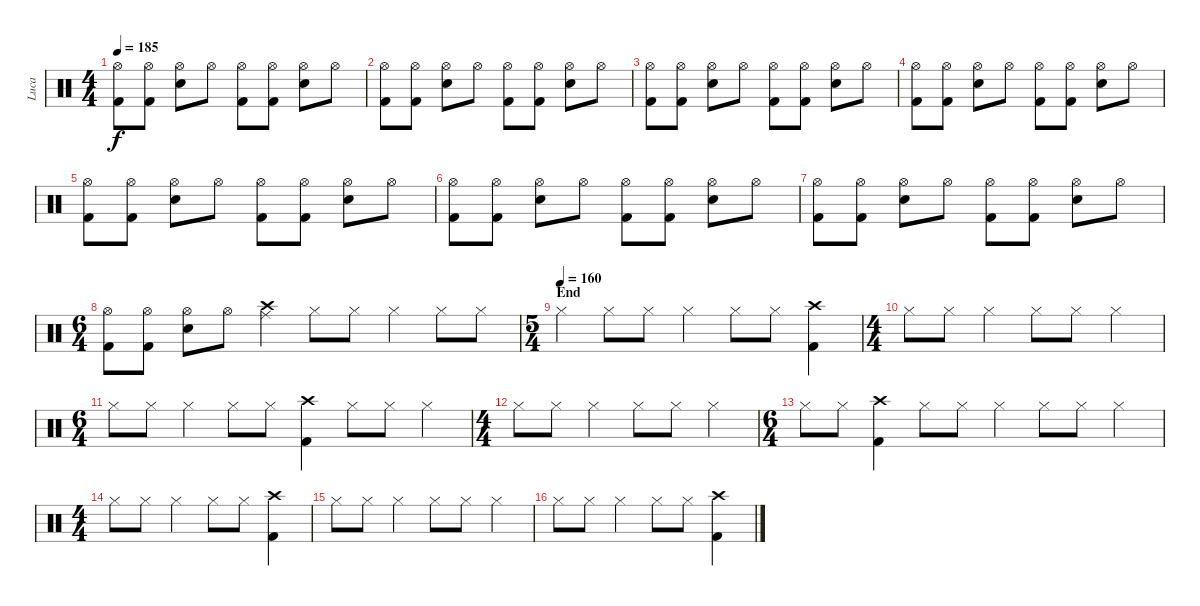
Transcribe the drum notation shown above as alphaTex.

\track ("Luca" "Luca") {instrument percussion}
\staff {score}
\articulation defaults
\ts (4 4)
\tempo 185
\clef neutral
\ks c
("Hi-Hat (open)" "Kick (hit) 2").8{dy f} ("Hi-Hat (open)" "Kick (hit) 2").8 ("Hi-Hat (open)" "Snare (hit) 2").8 "Hi-Hat (open)".8 ("Hi-Hat (open)" "Kick (hit) 2").8 ("Hi-Hat (open)" "Kick (hit) 2").8 ("Hi-Hat (open)" "Snare (hit) 2").8 "Hi-Hat (open)".8 |
("Hi-Hat (open)" "Kick (hit) 2").8 ("Hi-Hat (open)" "Kick (hit) 2").8 ("Hi-Hat (open)" "Snare (hit) 2").8 "Hi-Hat (open)".8 ("Hi-Hat (open)" "Kick (hit) 2").8 ("Hi-Hat (open)" "Kick (hit) 2").8 ("Hi-Hat (open)" "Snare (hit) 2").8 "Hi-Hat (open)".8 |
("Hi-Hat (open)" "Kick (hit) 2").8 ("Hi-Hat (open)" "Kick (hit) 2").8 ("Hi-Hat (open)" "Snare (hit) 2").8 "Hi-Hat (open)".8 ("Hi-Hat (open)" "Kick (hit) 2").8 ("Hi-Hat (open)" "Kick (hit) 2").8 ("Hi-Hat (open)" "Snare (hit) 2").8 "Hi-Hat (open)".8 |
("Hi-Hat (open)" "Kick (hit) 2").8 ("Hi-Hat (open)" "Kick (hit) 2").8 ("Hi-Hat (open)" "Snare (hit) 2").8 "Hi-Hat (open)".8 ("Hi-Hat (open)" "Kick (hit) 2").8 ("Hi-Hat (open)" "Kick (hit) 2").8 ("Hi-Hat (open)" "Snare (hit) 2").8 "Hi-Hat (open)".8 |
("Hi-Hat (open)" "Kick (hit) 2").8 ("Hi-Hat (open)" "Kick (hit) 2").8 ("Hi-Hat (open)" "Snare (hit) 2").8 "Hi-Hat (open)".8 ("Hi-Hat (open)" "Kick (hit) 2").8 ("Hi-Hat (open)" "Kick (hit) 2").8 ("Hi-Hat (open)" "Snare (hit) 2").8 "Hi-Hat (open)".8 |
("Hi-Hat (open)" "Kick (hit) 2").8 ("Hi-Hat (open)" "Kick (hit) 2").8 ("Hi-Hat (open)" "Snare (hit) 2").8 "Hi-Hat (open)".8 ("Hi-Hat (open)" "Kick (hit) 2").8 ("Hi-Hat (open)" "Kick (hit) 2").8 ("Hi-Hat (open)" "Snare (hit) 2").8 "Hi-Hat (open)".8 |
("Hi-Hat (open)" "Kick (hit) 2").8 ("Hi-Hat (open)" "Kick (hit) 2").8 ("Hi-Hat (open)" "Snare (hit) 2").8 "Hi-Hat (open)".8 ("Hi-Hat (open)" "Kick (hit) 2").8 ("Hi-Hat (open)" "Kick (hit) 2").8 ("Hi-Hat (open)" "Snare (hit) 2").8 "Hi-Hat (open)".8 |
\ts (6 4)
("Hi-Hat (open)" "Kick (hit) 2").8 ("Hi-Hat (open)" "Kick (hit) 2").8 ("Hi-Hat (open)" "Snare (hit) 2").8 "Hi-Hat (open)".8 ("Crash high (hit)" "Ride (middle)").4 "Hi-Hat (closed)".8 "Hi-Hat (closed)".8 "Hi-Hat (closed)".4 "Hi-Hat (closed)".8 "Hi-Hat (closed)".8 |
\ts (5 4)
\section ("" "End")
\tempo (160)
"Hi-Hat (closed)".4 "Hi-Hat (closed)".8 "Hi-Hat (closed)".8 "Hi-Hat (closed)".4 "Hi-Hat (closed)".8 "Hi-Hat (closed)".8 ("Crash high (hit)" "Kick (hit) 2").4 |
\ts (4 4)
"Hi-Hat (closed)".8 "Hi-Hat (closed)".8 "Hi-Hat (closed)".4 "Hi-Hat (closed)".8 "Hi-Hat (closed)".8 "Hi-Hat (closed)".4 |
\ts (6 4)
"Hi-Hat (closed)".8 "Hi-Hat (closed)".8 "Hi-Hat (closed)".4 "Hi-Hat (closed)".8 "Hi-Hat (closed)".8 ("Crash high (hit)" "Kick (hit) 2").4 "Hi-Hat (closed)".8 "Hi-Hat (closed)".8 "Hi-Hat (closed)".4 |
\ts (4 4)
"Hi-Hat (closed)".8 "Hi-Hat (closed)".8 "Hi-Hat (closed)".4 "Hi-Hat (closed)".8 "Hi-Hat (closed)".8 "Hi-Hat (closed)".4 |
\ts (6 4)
"Hi-Hat (closed)".8 "Hi-Hat (closed)".8 ("Crash high (hit)" "Kick (hit) 2").4 "Hi-Hat (closed)".8 "Hi-Hat (closed)".8 "Hi-Hat (closed)".4 "Hi-Hat (closed)".8 "Hi-Hat (closed)".8 "Hi-Hat (closed)".4 |
\ts (4 4)
"Hi-Hat (closed)".8 "Hi-Hat (closed)".8 "Hi-Hat (closed)".4 "Hi-Hat (closed)".8 "Hi-Hat (closed)".8 ("Crash high (hit)" "Kick (hit) 2").4 |
"Hi-Hat (closed)".8 "Hi-Hat (closed)".8 "Hi-Hat (closed)".4 "Hi-Hat (closed)".8 "Hi-Hat (closed)".8 "Hi-Hat (closed)".4 |
"Hi-Hat (closed)".8 "Hi-Hat (closed)".8 "Hi-Hat (closed)".4 "Hi-Hat (closed)".8 "Hi-Hat (closed)".8 ("Crash high (hit)" "Kick (hit) 2").4
